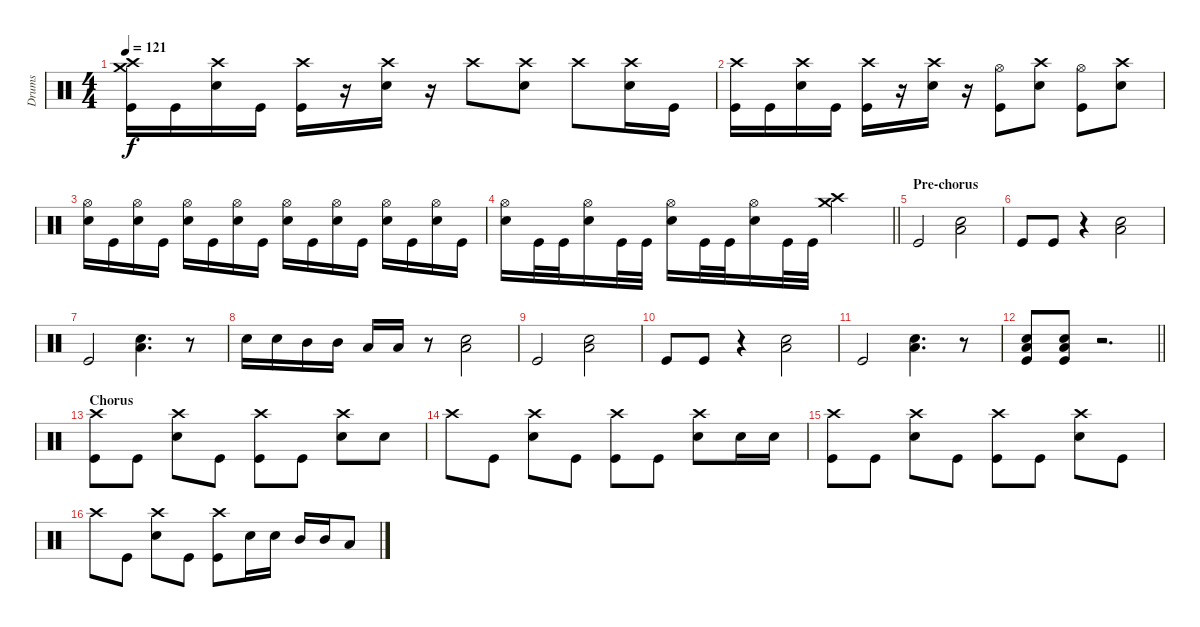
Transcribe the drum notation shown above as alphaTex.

\track ("Drums" "Drums") {instrument percussion}
\staff {score}
\articulation defaults
\ts (4 4)
\tempo 121
\clef neutral
\ks c
("Crash high (hit)" "Crash medium (hit)" "Kick (hit)").16{dy f} "Kick (hit)".16 ("Crash high (hit)" "Electric Snare (hit)").16 "Kick (hit)".16 ("Crash high (hit)" "Kick (hit)").16 r.16 ("Crash high (hit)" "Electric Snare (hit)").16 r.16 "Crash high (hit)".8 ("Crash high (hit)" "Electric Snare (hit)").8 "Crash high (hit)".8 ("Crash high (hit)" "Electric Snare (hit)").16 "Kick (hit)".16 |
("Crash high (hit)" "Kick (hit)").16 "Kick (hit)".16 ("Crash high (hit)" "Electric Snare (hit)").16 "Kick (hit)".16 ("Crash high (hit)" "Kick (hit)").16 r.16 ("Crash high (hit)" "Electric Snare (hit)").16 r.16 ("Hi-Hat (open)" "Kick (hit)").8 ("Crash high (hit)" "Electric Snare (hit)").8 ("Hi-Hat (open)" "Kick (hit)").8 ("Crash high (hit)" "Electric Snare (hit)").8 |
("Hi-Hat (open)" "Electric Snare (hit)").16 "Kick (hit)".16 ("Hi-Hat (open)" "Electric Snare (hit)").16 "Kick (hit)".16 ("Hi-Hat (open)" "Electric Snare (hit)").16 "Kick (hit)".16 ("Hi-Hat (open)" "Electric Snare (hit)").16 "Kick (hit)".16 ("Hi-Hat (open)" "Electric Snare (hit)").16 "Kick (hit)".16 ("Hi-Hat (open)" "Electric Snare (hit)").16 "Kick (hit)".16 ("Hi-Hat (open)" "Electric Snare (hit)").16 "Kick (hit)".16 ("Hi-Hat (open)" "Electric Snare (hit)").16 "Kick (hit)".16 |
\barLineRight lightlight
("Hi-Hat (open)" "Electric Snare (hit)").16 "Kick (hit)".32 "Kick (hit)".32 ("Hi-Hat (open)" "Electric Snare (hit)").16 "Kick (hit)".32 "Kick (hit)".32 ("Hi-Hat (open)" "Electric Snare (hit)").16 "Kick (hit)".32 "Kick (hit)".32 ("Hi-Hat (open)" "Electric Snare (hit)").16 "Kick (hit)".32 "Kick (hit)".32 ("Crash high (hit)" "Crash medium (hit)").2 |
\section ("" "Pre-chorus")
"Kick (hit)".2 ("Low Tom (hit)" "Electric Snare (hit)").2 |
"Kick (hit)".8 "Kick (hit)".8 r.4 ("Low Tom (hit)" "Electric Snare (hit)").2 |
"Kick (hit)".2 ("Low Tom (hit)" "Electric Snare (hit)").4{d} r.8 |
"Electric Snare (hit)".16 "Electric Snare (hit)".16 "Mid Tom (hit)".16 "Mid Tom (hit)".16 "Low Tom (hit)".16 "Low Tom (hit)".16 r.8 ("Low Tom (hit)" "Electric Snare (hit)").2 |
"Kick (hit)".2 ("Low Tom (hit)" "Electric Snare (hit)").2 |
"Kick (hit)".8 "Kick (hit)".8 r.4 ("Low Tom (hit)" "Electric Snare (hit)").2 |
"Kick (hit)".2 ("Low Tom (hit)" "Electric Snare (hit)").4{d} r.8 |
\barLineRight lightlight
("Low Tom (hit)" "Electric Snare (hit)" "Kick (hit)").8 ("Low Tom (hit)" "Electric Snare (hit)" "Kick (hit)").8 r.2{d} |
\section ("" "Chorus")
("Crash high (hit)" "Kick (hit)").8 "Kick (hit)".8 ("Crash high (hit)" "Electric Snare (hit)").8 "Kick (hit)".8 ("Crash high (hit)" "Kick (hit)").8 "Kick (hit)".8 ("Crash high (hit)" "Electric Snare (hit)").8 "Electric Snare (hit)".8 |
"Crash high (hit)".8 "Kick (hit)".8 ("Crash high (hit)" "Electric Snare (hit)").8 "Kick (hit)".8 ("Crash high (hit)" "Kick (hit)").8 "Kick (hit)".8 ("Crash high (hit)" "Electric Snare (hit)").8 "Electric Snare (hit)".16 "Electric Snare (hit)".16 |
("Crash high (hit)" "Kick (hit)").8 "Kick (hit)".8 ("Crash high (hit)" "Electric Snare (hit)").8 "Kick (hit)".8 ("Crash high (hit)" "Kick (hit)").8 "Kick (hit)".8 ("Crash high (hit)" "Electric Snare (hit)").8 "Kick (hit)".8 |
"Crash high (hit)".8 "Kick (hit)".8 ("Crash high (hit)" "Electric Snare (hit)").8 "Kick (hit)".8 ("Crash high (hit)" "Kick (hit)").8 "Electric Snare (hit)".16 "Electric Snare (hit)".16 "Mid Tom (hit)".16 "Mid Tom (hit)".16 "Low Tom (hit)".8
